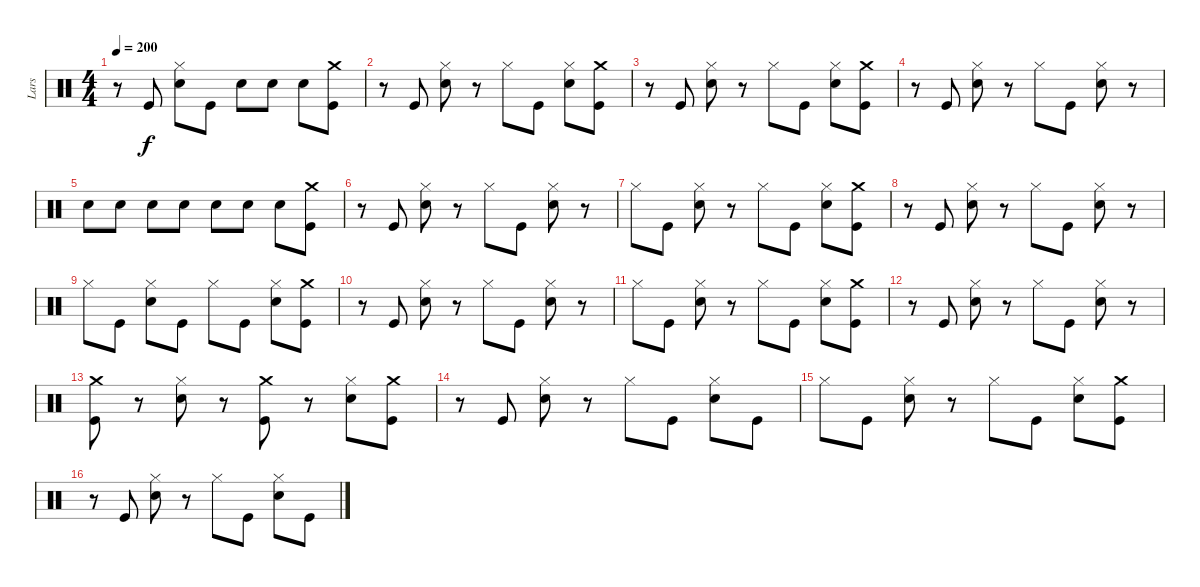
\track ("Lars" "Lars") {instrument percussion}
\staff {score}
\articulation defaults
\ts (4 4)
\tempo 200
\clef neutral
\ks c
r.8{dy f} "Kick (hit)".8 ("Hi-Hat (closed)" "Snare (hit) 2").8 "Kick (hit)".8 "Snare (hit) 2".8 "Snare (hit) 2".8 "Snare (hit) 2".8 ("Crash medium (hit)" "Kick (hit)").8 |
r.8 "Kick (hit)".8 ("Hi-Hat (closed)" "Snare (hit) 2").8 r.8 "Hi-Hat (closed)".8 "Kick (hit)".8 ("Hi-Hat (closed)" "Snare (hit) 2").8 ("Crash medium (hit)" "Kick (hit)").8 |
r.8 "Kick (hit)".8 ("Hi-Hat (closed)" "Snare (hit) 2").8 r.8 "Hi-Hat (closed)".8 "Kick (hit)".8 ("Hi-Hat (closed)" "Snare (hit) 2").8 ("Crash medium (hit)" "Kick (hit)").8 |
r.8 "Kick (hit)".8 ("Hi-Hat (closed)" "Snare (hit) 2").8 r.8 "Hi-Hat (closed)".8 "Kick (hit)".8 ("Hi-Hat (closed)" "Snare (hit) 2").8 r.8 |
"Snare (hit) 2".8 "Snare (hit) 2".8 "Snare (hit) 2".8 "Snare (hit) 2".8 "Snare (hit) 2".8 "Snare (hit) 2".8 "Snare (hit) 2".8 ("Crash medium (hit)" "Kick (hit)").8 |
r.8 "Kick (hit)".8 ("Hi-Hat (closed)" "Snare (hit) 2").8 r.8 "Hi-Hat (closed)".8 "Kick (hit)".8 ("Hi-Hat (closed)" "Snare (hit) 2").8 r.8 |
"Hi-Hat (closed)".8 "Kick (hit)".8 ("Hi-Hat (closed)" "Snare (hit) 2").8 r.8 "Hi-Hat (closed)".8 "Kick (hit)".8 ("Hi-Hat (closed)" "Snare (hit) 2").8 ("Crash medium (hit)" "Kick (hit)").8 |
r.8 "Kick (hit)".8 ("Hi-Hat (closed)" "Snare (hit) 2").8 r.8 "Hi-Hat (closed)".8 "Kick (hit)".8 ("Hi-Hat (closed)" "Snare (hit) 2").8 r.8 |
"Hi-Hat (closed)".8 "Kick (hit)".8 ("Hi-Hat (closed)" "Snare (hit) 2").8 "Kick (hit)".8 "Hi-Hat (closed)".8 "Kick (hit)".8 ("Hi-Hat (closed)" "Snare (hit) 2").8 ("Crash medium (hit)" "Kick (hit)").8 |
r.8 "Kick (hit)".8 ("Hi-Hat (closed)" "Snare (hit) 2").8 r.8 "Hi-Hat (closed)".8 "Kick (hit)".8 ("Hi-Hat (closed)" "Snare (hit) 2").8 r.8 |
"Hi-Hat (closed)".8 "Kick (hit)".8 ("Hi-Hat (closed)" "Snare (hit) 2").8 r.8 "Hi-Hat (closed)".8 "Kick (hit)".8 ("Hi-Hat (closed)" "Snare (hit) 2").8 ("Crash medium (hit)" "Kick (hit)").8 |
r.8 "Kick (hit)".8 ("Hi-Hat (closed)" "Snare (hit) 2").8 r.8 "Hi-Hat (closed)".8 "Kick (hit)".8 ("Hi-Hat (closed)" "Snare (hit) 2").8 r.8 |
("Crash medium (hit)" "Kick (hit)").8 r.8 ("Snare (hit) 2" "Hi-Hat (closed)").8 r.8 ("Crash medium (hit)" "Kick (hit)").8 r.8 ("Hi-Hat (closed)" "Snare (hit) 2").8 ("Crash medium (hit)" "Kick (hit)").8 |
r.8 "Kick (hit)".8 ("Hi-Hat (closed)" "Snare (hit) 2").8 r.8 "Hi-Hat (closed)".8 "Kick (hit)".8 ("Snare (hit) 2" "Hi-Hat (closed)").8 "Kick (hit)".8 |
"Hi-Hat (closed)".8 "Kick (hit)".8 ("Hi-Hat (closed)" "Snare (hit) 2").8 r.8 "Hi-Hat (closed)".8 "Kick (hit)".8 ("Hi-Hat (closed)" "Snare (hit) 2").8 ("Crash medium (hit)" "Kick (hit)").8 |
r.8 "Kick (hit)".8 ("Hi-Hat (closed)" "Snare (hit) 2").8 r.8 "Hi-Hat (closed)".8 "Kick (hit)".8 ("Hi-Hat (closed)" "Snare (hit) 2").8 "Kick (hit)".8
